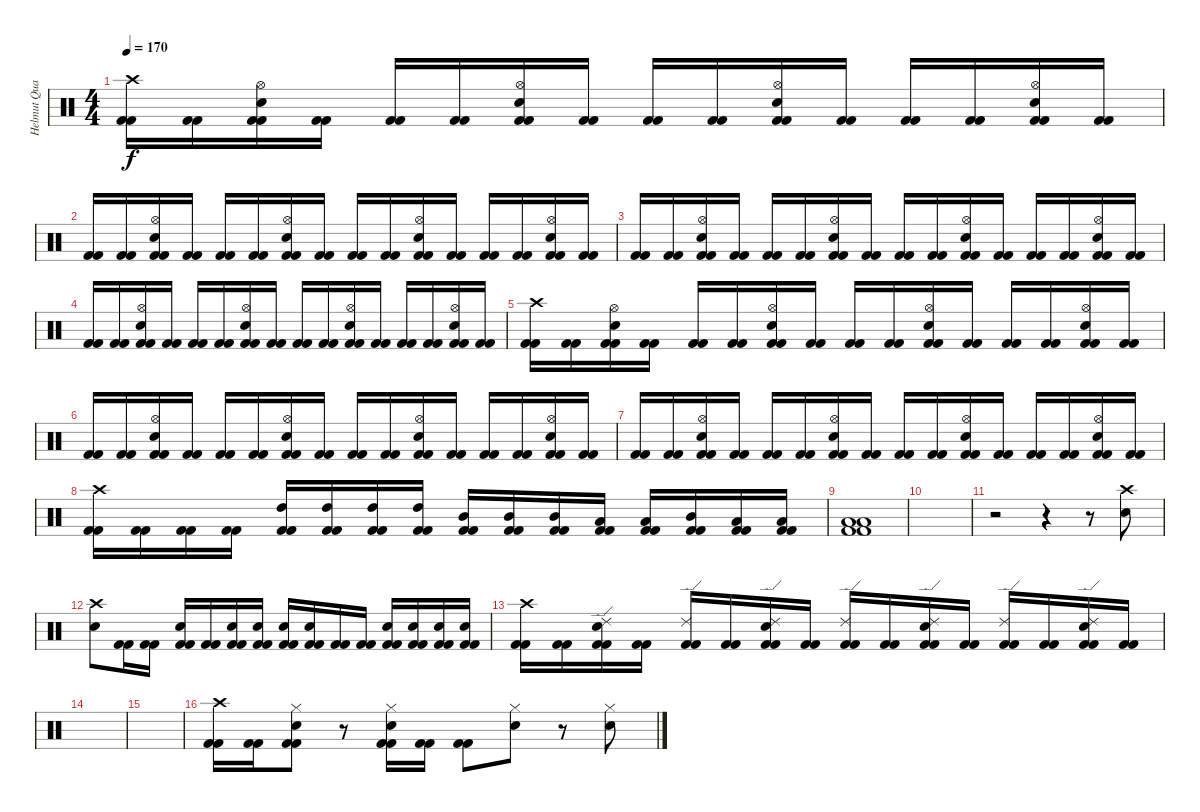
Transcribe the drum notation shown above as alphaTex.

\track ("Helmut Quacken" "Helmut Qua") {instrument percussion}
\staff {score}
\articulation defaults
\ts (4 4)
\tempo 170
\clef neutral
\ks c
("Crash high (hit)" "Kick (hit) 2" "Kick (hit) 2").16{dy f} ("Kick (hit) 2" "Kick (hit) 2").16 ("Hi-Hat (open)" "Electric Snare (hit)" "Kick (hit) 2" "Kick (hit) 2").16 ("Kick (hit) 2" "Kick (hit) 2").16 ("Kick (hit) 2" "Kick (hit) 2").16 ("Kick (hit) 2" "Kick (hit) 2").16 ("Hi-Hat (open)" "Electric Snare (hit)" "Kick (hit) 2" "Kick (hit) 2").16 ("Kick (hit) 2" "Kick (hit) 2").16 ("Kick (hit) 2" "Kick (hit) 2").16 ("Kick (hit) 2" "Kick (hit) 2").16 ("Hi-Hat (open)" "Electric Snare (hit)" "Kick (hit) 2" "Kick (hit) 2").16 ("Kick (hit) 2" "Kick (hit) 2").16 ("Kick (hit) 2" "Kick (hit) 2").16 ("Kick (hit) 2" "Kick (hit) 2").16 ("Hi-Hat (open)" "Electric Snare (hit)" "Kick (hit) 2" "Kick (hit) 2").16 ("Kick (hit) 2" "Kick (hit) 2").16 |
("Kick (hit) 2" "Kick (hit) 2").16 ("Kick (hit) 2" "Kick (hit) 2").16 ("Hi-Hat (open)" "Electric Snare (hit)" "Kick (hit) 2" "Kick (hit) 2").16 ("Kick (hit) 2" "Kick (hit) 2").16 ("Kick (hit) 2" "Kick (hit) 2").16 ("Kick (hit) 2" "Kick (hit) 2").16 ("Hi-Hat (open)" "Electric Snare (hit)" "Kick (hit) 2" "Kick (hit) 2").16 ("Kick (hit) 2" "Kick (hit) 2").16 ("Kick (hit) 2" "Kick (hit) 2").16 ("Kick (hit) 2" "Kick (hit) 2").16 ("Hi-Hat (open)" "Electric Snare (hit)" "Kick (hit) 2" "Kick (hit) 2").16 ("Kick (hit) 2" "Kick (hit) 2").16 ("Kick (hit) 2" "Kick (hit) 2").16 ("Kick (hit) 2" "Kick (hit) 2").16 ("Hi-Hat (open)" "Electric Snare (hit)" "Kick (hit) 2" "Kick (hit) 2").16 ("Kick (hit) 2" "Kick (hit) 2").16 |
("Kick (hit) 2" "Kick (hit) 2").16 ("Kick (hit) 2" "Kick (hit) 2").16 ("Hi-Hat (open)" "Electric Snare (hit)" "Kick (hit) 2" "Kick (hit) 2").16 ("Kick (hit) 2" "Kick (hit) 2").16 ("Kick (hit) 2" "Kick (hit) 2").16 ("Kick (hit) 2" "Kick (hit) 2").16 ("Hi-Hat (open)" "Electric Snare (hit)" "Kick (hit) 2" "Kick (hit) 2").16 ("Kick (hit) 2" "Kick (hit) 2").16 ("Kick (hit) 2" "Kick (hit) 2").16 ("Kick (hit) 2" "Kick (hit) 2").16 ("Hi-Hat (open)" "Electric Snare (hit)" "Kick (hit) 2" "Kick (hit) 2").16 ("Kick (hit) 2" "Kick (hit) 2").16 ("Kick (hit) 2" "Kick (hit) 2").16 ("Kick (hit) 2" "Kick (hit) 2").16 ("Hi-Hat (open)" "Electric Snare (hit)" "Kick (hit) 2" "Kick (hit) 2").16 ("Kick (hit) 2" "Kick (hit) 2").16 |
("Kick (hit) 2" "Kick (hit) 2").16 ("Kick (hit) 2" "Kick (hit) 2").16 ("Hi-Hat (open)" "Electric Snare (hit)" "Kick (hit) 2" "Kick (hit) 2").16 ("Kick (hit) 2" "Kick (hit) 2").16 ("Kick (hit) 2" "Kick (hit) 2").16 ("Kick (hit) 2" "Kick (hit) 2").16 ("Hi-Hat (open)" "Electric Snare (hit)" "Kick (hit) 2" "Kick (hit) 2").16 ("Kick (hit) 2" "Kick (hit) 2").16 ("Kick (hit) 2" "Kick (hit) 2").16 ("Kick (hit) 2" "Kick (hit) 2").16 ("Hi-Hat (open)" "Electric Snare (hit)" "Kick (hit) 2" "Kick (hit) 2").16 ("Kick (hit) 2" "Kick (hit) 2").16 ("Kick (hit) 2" "Kick (hit) 2").16 ("Kick (hit) 2" "Kick (hit) 2").16 ("Hi-Hat (open)" "Electric Snare (hit)" "Kick (hit) 2" "Kick (hit) 2").16 ("Kick (hit) 2" "Kick (hit) 2").16 |
("Crash high (hit)" "Kick (hit) 2" "Kick (hit) 2").16 ("Kick (hit) 2" "Kick (hit) 2").16 ("Hi-Hat (open)" "Electric Snare (hit)" "Kick (hit) 2" "Kick (hit) 2").16 ("Kick (hit) 2" "Kick (hit) 2").16 ("Kick (hit) 2" "Kick (hit) 2").16 ("Kick (hit) 2" "Kick (hit) 2").16 ("Hi-Hat (open)" "Electric Snare (hit)" "Kick (hit) 2" "Kick (hit) 2").16 ("Kick (hit) 2" "Kick (hit) 2").16 ("Kick (hit) 2" "Kick (hit) 2").16 ("Kick (hit) 2" "Kick (hit) 2").16 ("Hi-Hat (open)" "Electric Snare (hit)" "Kick (hit) 2" "Kick (hit) 2").16 ("Kick (hit) 2" "Kick (hit) 2").16 ("Kick (hit) 2" "Kick (hit) 2").16 ("Kick (hit) 2" "Kick (hit) 2").16 ("Hi-Hat (open)" "Electric Snare (hit)" "Kick (hit) 2" "Kick (hit) 2").16 ("Kick (hit) 2" "Kick (hit) 2").16 |
("Kick (hit) 2" "Kick (hit) 2").16 ("Kick (hit) 2" "Kick (hit) 2").16 ("Hi-Hat (open)" "Electric Snare (hit)" "Kick (hit) 2" "Kick (hit) 2").16 ("Kick (hit) 2" "Kick (hit) 2").16 ("Kick (hit) 2" "Kick (hit) 2").16 ("Kick (hit) 2" "Kick (hit) 2").16 ("Hi-Hat (open)" "Electric Snare (hit)" "Kick (hit) 2" "Kick (hit) 2").16 ("Kick (hit) 2" "Kick (hit) 2").16 ("Kick (hit) 2" "Kick (hit) 2").16 ("Kick (hit) 2" "Kick (hit) 2").16 ("Hi-Hat (open)" "Electric Snare (hit)" "Kick (hit) 2" "Kick (hit) 2").16 ("Kick (hit) 2" "Kick (hit) 2").16 ("Kick (hit) 2" "Kick (hit) 2").16 ("Kick (hit) 2" "Kick (hit) 2").16 ("Hi-Hat (open)" "Electric Snare (hit)" "Kick (hit) 2" "Kick (hit) 2").16 ("Kick (hit) 2" "Kick (hit) 2").16 |
("Kick (hit) 2" "Kick (hit) 2").16 ("Kick (hit) 2" "Kick (hit) 2").16 ("Hi-Hat (open)" "Electric Snare (hit)" "Kick (hit) 2" "Kick (hit) 2").16 ("Kick (hit) 2" "Kick (hit) 2").16 ("Kick (hit) 2" "Kick (hit) 2").16 ("Kick (hit) 2" "Kick (hit) 2").16 ("Hi-Hat (open)" "Electric Snare (hit)" "Kick (hit) 2" "Kick (hit) 2").16 ("Kick (hit) 2" "Kick (hit) 2").16 ("Kick (hit) 2" "Kick (hit) 2").16 ("Kick (hit) 2" "Kick (hit) 2").16 ("Hi-Hat (open)" "Electric Snare (hit)" "Kick (hit) 2" "Kick (hit) 2").16 ("Kick (hit) 2" "Kick (hit) 2").16 ("Kick (hit) 2" "Kick (hit) 2").16 ("Kick (hit) 2" "Kick (hit) 2").16 ("Hi-Hat (open)" "Electric Snare (hit)" "Kick (hit) 2" "Kick (hit) 2").16 ("Kick (hit) 2" "Kick (hit) 2").16 |
("Crash high (hit)" "Kick (hit) 2" "Kick (hit) 2").16 ("Kick (hit) 2" "Kick (hit) 2").16 ("Kick (hit) 2" "Kick (hit) 2").16 ("Kick (hit) 2" "Kick (hit) 2").16 ("High Tom (hit)" "Kick (hit) 2" "Kick (hit) 2").16 ("High Tom (hit)" "Kick (hit) 2" "Kick (hit) 2").16 ("High Tom (hit)" "Kick (hit) 2" "Kick (hit) 2").16 ("High Tom (hit)" "Kick (hit) 2" "Kick (hit) 2").16 ("Mid Tom (hit)" "Kick (hit) 2" "Kick (hit) 2").16 ("Mid Tom (hit)" "Kick (hit) 2" "Kick (hit) 2").16 ("Mid Tom (hit)" "Kick (hit) 2" "Kick (hit) 2").16 ("Low Tom (hit)" "Kick (hit) 2" "Kick (hit) 2").16 ("Low Tom (hit)" "Kick (hit) 2" "Kick (hit) 2").16 ("Mid Tom (hit)" "Kick (hit) 2" "Kick (hit) 2").16 ("Low Tom (hit)" "Kick (hit) 2" "Kick (hit) 2").16 ("Low Tom (hit)" "Kick (hit) 2" "Kick (hit) 2").16 |
("Low Tom (hit)" "Low Tom (hit)" "Kick (hit) 2" "Kick (hit) 2").1 |
|
r.2 r.4 r.8 ("Crash high (hit)" "Electric Snare (hit)").8 |
("Crash high (hit)" "Electric Snare (hit)").8 ("Kick (hit) 2" "Kick (hit) 2").16 ("Kick (hit) 2" "Kick (hit) 2").16 ("Electric Snare (hit)" "Kick (hit) 2" "Kick (hit) 2").16 ("Kick (hit) 2" "Kick (hit) 2").16 ("Electric Snare (hit)" "Kick (hit) 2" "Kick (hit) 2").16 ("Electric Snare (hit)" "Kick (hit) 2" "Kick (hit) 2").16 ("Electric Snare (hit)" "Kick (hit) 2" "Kick (hit) 2").16 ("Electric Snare (hit)" "Kick (hit) 2" "Kick (hit) 2").16 ("Kick (hit) 2" "Kick (hit) 2").16 ("Kick (hit) 2" "Kick (hit) 2").16 ("Electric Snare (hit)" "Kick (hit) 2" "Kick (hit) 2").16 ("Electric Snare (hit)" "Kick (hit) 2" "Kick (hit) 2").16 ("Electric Snare (hit)" "Kick (hit) 2" "Kick (hit) 2").16 ("Electric Snare (hit)" "Kick (hit) 2" "Kick (hit) 2").16 |
("Crash high (hit)" "Kick (hit) 2" "Kick (hit) 2").16 ("Kick (hit) 2" "Kick (hit) 2").16 ("Ride (edge) 2" "Electric Snare (hit)" "Kick (hit) 2" "Kick (hit) 2").16 ("Kick (hit) 2" "Kick (hit) 2").16 ("Ride (edge) 2" "Kick (hit) 2" "Kick (hit) 2").16 ("Kick (hit) 2" "Kick (hit) 2").16 ("Ride (edge) 2" "Electric Snare (hit)" "Kick (hit) 2" "Kick (hit) 2").16 ("Kick (hit) 2" "Kick (hit) 2").16 ("Ride (edge) 2" "Kick (hit) 2" "Kick (hit) 2").16 ("Kick (hit) 2" "Kick (hit) 2").16 ("Ride (edge) 2" "Electric Snare (hit)" "Kick (hit) 2" "Kick (hit) 2").16 ("Kick (hit) 2" "Kick (hit) 2").16 ("Ride (edge) 2" "Kick (hit) 2" "Kick (hit) 2").16 ("Kick (hit) 2" "Kick (hit) 2").16 ("Ride (edge) 2" "Electric Snare (hit)" "Kick (hit) 2" "Kick (hit) 2").16 ("Kick (hit) 2" "Kick (hit) 2").16 |
|
|
("Crash high (hit)" "Kick (hit) 2" "Kick (hit) 2").16 ("Kick (hit) 2" "Kick (hit) 2").16 ("Hi-Hat (closed)" "Electric Snare (hit)" "Kick (hit) 2" "Kick (hit) 2").8 r.8 ("Hi-Hat (closed)" "Electric Snare (hit)" "Kick (hit) 2" "Kick (hit) 2").16 ("Kick (hit) 2" "Kick (hit) 2").16 ("Kick (hit) 2" "Kick (hit) 2").8 ("Hi-Hat (closed)" "Electric Snare (hit)").8 r.8 ("Hi-Hat (closed)" "Electric Snare (hit)").8
